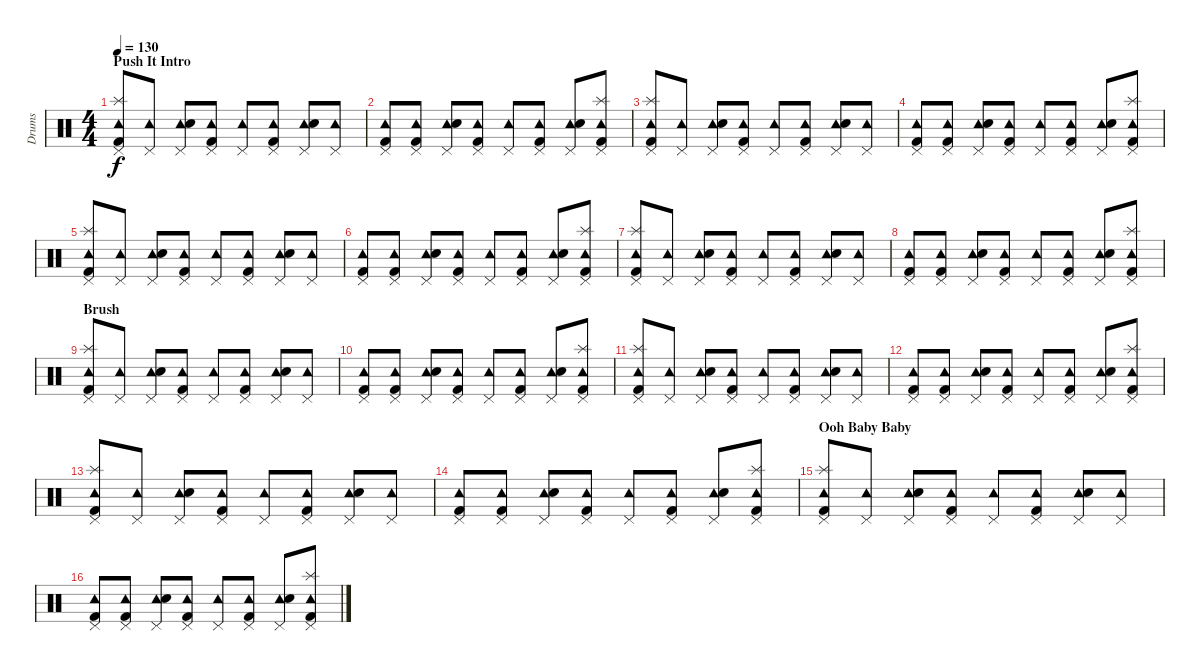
\track ("Drums" "Drums") {instrument percussion}
\staff {score}
\articulation defaults
\ts (4 4)
\section ("" "Push It Intro")
\tempo 130
\clef neutral
\ks c
("Tambourine (hit)" "Pedal Hi-Hat (hit)" "Splash (hit)" "Kick (hit) 2").8{dy f} ("Tambourine (hit)" "Pedal Hi-Hat (hit)").8 ("Tambourine (hit)" "Pedal Hi-Hat (hit)" "Electric Snare (hit)").8 ("Tambourine (hit)" "Pedal Hi-Hat (hit)" "Kick (hit) 2").8 ("Tambourine (hit)" "Pedal Hi-Hat (hit)").8 ("Tambourine (hit)" "Pedal Hi-Hat (hit)" "Kick (hit) 2").8 ("Tambourine (hit)" "Pedal Hi-Hat (hit)" "Electric Snare (hit)").8 ("Tambourine (hit)" "Pedal Hi-Hat (hit)").8 |
("Tambourine (hit)" "Pedal Hi-Hat (hit)" "Kick (hit) 2").8 ("Tambourine (hit)" "Pedal Hi-Hat (hit)" "Kick (hit) 2").8 ("Tambourine (hit)" "Pedal Hi-Hat (hit)" "Electric Snare (hit)").8 ("Tambourine (hit)" "Pedal Hi-Hat (hit)" "Kick (hit) 2").8 ("Tambourine (hit)" "Pedal Hi-Hat (hit)").8 ("Tambourine (hit)" "Pedal Hi-Hat (hit)" "Kick (hit) 2").8 ("Tambourine (hit)" "Pedal Hi-Hat (hit)" "Electric Snare (hit)").8 ("Tambourine (hit)" "Pedal Hi-Hat (hit)" "Splash (hit)" "Kick (hit) 2").8 |
("Tambourine (hit)" "Pedal Hi-Hat (hit)" "Splash (hit)" "Kick (hit) 2").8 ("Tambourine (hit)" "Pedal Hi-Hat (hit)").8 ("Tambourine (hit)" "Pedal Hi-Hat (hit)" "Electric Snare (hit)").8 ("Tambourine (hit)" "Pedal Hi-Hat (hit)" "Kick (hit) 2").8 ("Tambourine (hit)" "Pedal Hi-Hat (hit)").8 ("Tambourine (hit)" "Pedal Hi-Hat (hit)" "Kick (hit) 2").8 ("Tambourine (hit)" "Pedal Hi-Hat (hit)" "Electric Snare (hit)").8 ("Tambourine (hit)" "Pedal Hi-Hat (hit)").8 |
("Tambourine (hit)" "Pedal Hi-Hat (hit)" "Kick (hit) 2").8 ("Tambourine (hit)" "Pedal Hi-Hat (hit)" "Kick (hit) 2").8 ("Tambourine (hit)" "Pedal Hi-Hat (hit)" "Electric Snare (hit)").8 ("Tambourine (hit)" "Pedal Hi-Hat (hit)" "Kick (hit) 2").8 ("Tambourine (hit)" "Pedal Hi-Hat (hit)").8 ("Tambourine (hit)" "Pedal Hi-Hat (hit)" "Kick (hit) 2").8 ("Tambourine (hit)" "Pedal Hi-Hat (hit)" "Electric Snare (hit)").8 ("Tambourine (hit)" "Pedal Hi-Hat (hit)" "Splash (hit)" "Kick (hit) 2").8 |
("Tambourine (hit)" "Pedal Hi-Hat (hit)" "Splash (hit)" "Kick (hit) 2").8 ("Tambourine (hit)" "Pedal Hi-Hat (hit)").8 ("Tambourine (hit)" "Pedal Hi-Hat (hit)" "Electric Snare (hit)").8 ("Tambourine (hit)" "Pedal Hi-Hat (hit)" "Kick (hit) 2").8 ("Tambourine (hit)" "Pedal Hi-Hat (hit)").8 ("Tambourine (hit)" "Pedal Hi-Hat (hit)" "Kick (hit) 2").8 ("Tambourine (hit)" "Pedal Hi-Hat (hit)" "Electric Snare (hit)").8 ("Tambourine (hit)" "Pedal Hi-Hat (hit)").8 |
("Tambourine (hit)" "Pedal Hi-Hat (hit)" "Kick (hit) 2").8 ("Tambourine (hit)" "Pedal Hi-Hat (hit)" "Kick (hit) 2").8 ("Tambourine (hit)" "Pedal Hi-Hat (hit)" "Electric Snare (hit)").8 ("Tambourine (hit)" "Pedal Hi-Hat (hit)" "Kick (hit) 2").8 ("Tambourine (hit)" "Pedal Hi-Hat (hit)").8 ("Tambourine (hit)" "Pedal Hi-Hat (hit)" "Kick (hit) 2").8 ("Tambourine (hit)" "Pedal Hi-Hat (hit)" "Electric Snare (hit)").8 ("Tambourine (hit)" "Pedal Hi-Hat (hit)" "Splash (hit)" "Kick (hit) 2").8 |
("Tambourine (hit)" "Pedal Hi-Hat (hit)" "Splash (hit)" "Kick (hit) 2").8 ("Tambourine (hit)" "Pedal Hi-Hat (hit)").8 ("Tambourine (hit)" "Pedal Hi-Hat (hit)" "Electric Snare (hit)").8 ("Tambourine (hit)" "Pedal Hi-Hat (hit)" "Kick (hit) 2").8 ("Tambourine (hit)" "Pedal Hi-Hat (hit)").8 ("Tambourine (hit)" "Pedal Hi-Hat (hit)" "Kick (hit) 2").8 ("Tambourine (hit)" "Pedal Hi-Hat (hit)" "Electric Snare (hit)").8 ("Tambourine (hit)" "Pedal Hi-Hat (hit)").8 |
("Tambourine (hit)" "Pedal Hi-Hat (hit)" "Kick (hit) 2").8 ("Tambourine (hit)" "Pedal Hi-Hat (hit)" "Kick (hit) 2").8 ("Tambourine (hit)" "Pedal Hi-Hat (hit)" "Electric Snare (hit)").8 ("Tambourine (hit)" "Pedal Hi-Hat (hit)" "Kick (hit) 2").8 ("Tambourine (hit)" "Pedal Hi-Hat (hit)").8 ("Tambourine (hit)" "Pedal Hi-Hat (hit)" "Kick (hit) 2").8 ("Tambourine (hit)" "Pedal Hi-Hat (hit)" "Electric Snare (hit)").8 ("Tambourine (hit)" "Pedal Hi-Hat (hit)" "Splash (hit)" "Kick (hit) 2").8 |
\section ("" "Brush")
("Tambourine (hit)" "Pedal Hi-Hat (hit)" "Splash (hit)" "Kick (hit) 2").8 ("Tambourine (hit)" "Pedal Hi-Hat (hit)").8 ("Tambourine (hit)" "Pedal Hi-Hat (hit)" "Electric Snare (hit)").8 ("Tambourine (hit)" "Pedal Hi-Hat (hit)" "Kick (hit) 2").8 ("Tambourine (hit)" "Pedal Hi-Hat (hit)").8 ("Tambourine (hit)" "Pedal Hi-Hat (hit)" "Kick (hit) 2").8 ("Tambourine (hit)" "Pedal Hi-Hat (hit)" "Electric Snare (hit)").8 ("Tambourine (hit)" "Pedal Hi-Hat (hit)").8 |
("Tambourine (hit)" "Pedal Hi-Hat (hit)" "Kick (hit) 2").8 ("Tambourine (hit)" "Pedal Hi-Hat (hit)" "Kick (hit) 2").8 ("Tambourine (hit)" "Pedal Hi-Hat (hit)" "Electric Snare (hit)").8 ("Tambourine (hit)" "Pedal Hi-Hat (hit)" "Kick (hit) 2").8 ("Tambourine (hit)" "Pedal Hi-Hat (hit)").8 ("Tambourine (hit)" "Pedal Hi-Hat (hit)" "Kick (hit) 2").8 ("Tambourine (hit)" "Pedal Hi-Hat (hit)" "Electric Snare (hit)").8 ("Tambourine (hit)" "Pedal Hi-Hat (hit)" "Splash (hit)" "Kick (hit) 2").8 |
("Tambourine (hit)" "Pedal Hi-Hat (hit)" "Splash (hit)" "Kick (hit) 2").8 ("Tambourine (hit)" "Pedal Hi-Hat (hit)").8 ("Tambourine (hit)" "Pedal Hi-Hat (hit)" "Electric Snare (hit)").8 ("Tambourine (hit)" "Pedal Hi-Hat (hit)" "Kick (hit) 2").8 ("Tambourine (hit)" "Pedal Hi-Hat (hit)").8 ("Tambourine (hit)" "Pedal Hi-Hat (hit)" "Kick (hit) 2").8 ("Tambourine (hit)" "Pedal Hi-Hat (hit)" "Electric Snare (hit)").8 ("Tambourine (hit)" "Pedal Hi-Hat (hit)").8 |
("Tambourine (hit)" "Pedal Hi-Hat (hit)" "Kick (hit) 2").8 ("Tambourine (hit)" "Pedal Hi-Hat (hit)" "Kick (hit) 2").8 ("Tambourine (hit)" "Pedal Hi-Hat (hit)" "Electric Snare (hit)").8 ("Tambourine (hit)" "Pedal Hi-Hat (hit)" "Kick (hit) 2").8 ("Tambourine (hit)" "Pedal Hi-Hat (hit)").8 ("Tambourine (hit)" "Pedal Hi-Hat (hit)" "Kick (hit) 2").8 ("Tambourine (hit)" "Pedal Hi-Hat (hit)" "Electric Snare (hit)").8 ("Tambourine (hit)" "Pedal Hi-Hat (hit)" "Splash (hit)" "Kick (hit) 2").8 |
("Tambourine (hit)" "Pedal Hi-Hat (hit)" "Splash (hit)" "Kick (hit) 2").8 ("Tambourine (hit)" "Pedal Hi-Hat (hit)").8 ("Tambourine (hit)" "Pedal Hi-Hat (hit)" "Electric Snare (hit)").8 ("Tambourine (hit)" "Pedal Hi-Hat (hit)" "Kick (hit) 2").8 ("Tambourine (hit)" "Pedal Hi-Hat (hit)").8 ("Tambourine (hit)" "Pedal Hi-Hat (hit)" "Kick (hit) 2").8 ("Tambourine (hit)" "Pedal Hi-Hat (hit)" "Electric Snare (hit)").8 ("Tambourine (hit)" "Pedal Hi-Hat (hit)").8 |
("Tambourine (hit)" "Pedal Hi-Hat (hit)" "Kick (hit) 2").8 ("Tambourine (hit)" "Pedal Hi-Hat (hit)" "Kick (hit) 2").8 ("Tambourine (hit)" "Pedal Hi-Hat (hit)" "Electric Snare (hit)").8 ("Tambourine (hit)" "Pedal Hi-Hat (hit)" "Kick (hit) 2").8 ("Tambourine (hit)" "Pedal Hi-Hat (hit)").8 ("Tambourine (hit)" "Pedal Hi-Hat (hit)" "Kick (hit) 2").8 ("Tambourine (hit)" "Pedal Hi-Hat (hit)" "Electric Snare (hit)").8 ("Tambourine (hit)" "Pedal Hi-Hat (hit)" "Splash (hit)" "Kick (hit) 2").8 |
\section ("" "Ooh Baby Baby")
("Tambourine (hit)" "Pedal Hi-Hat (hit)" "Splash (hit)" "Kick (hit) 2").8 ("Tambourine (hit)" "Pedal Hi-Hat (hit)").8 ("Tambourine (hit)" "Pedal Hi-Hat (hit)" "Electric Snare (hit)").8 ("Tambourine (hit)" "Pedal Hi-Hat (hit)" "Kick (hit) 2").8 ("Tambourine (hit)" "Pedal Hi-Hat (hit)").8 ("Tambourine (hit)" "Pedal Hi-Hat (hit)" "Kick (hit) 2").8 ("Tambourine (hit)" "Pedal Hi-Hat (hit)" "Electric Snare (hit)").8 ("Tambourine (hit)" "Pedal Hi-Hat (hit)").8 |
("Tambourine (hit)" "Pedal Hi-Hat (hit)" "Kick (hit) 2").8 ("Tambourine (hit)" "Pedal Hi-Hat (hit)" "Kick (hit) 2").8 ("Tambourine (hit)" "Pedal Hi-Hat (hit)" "Electric Snare (hit)").8 ("Tambourine (hit)" "Pedal Hi-Hat (hit)" "Kick (hit) 2").8 ("Tambourine (hit)" "Pedal Hi-Hat (hit)").8 ("Tambourine (hit)" "Pedal Hi-Hat (hit)" "Kick (hit) 2").8 ("Tambourine (hit)" "Pedal Hi-Hat (hit)" "Electric Snare (hit)").8 ("Tambourine (hit)" "Pedal Hi-Hat (hit)" "Splash (hit)" "Kick (hit) 2").8
